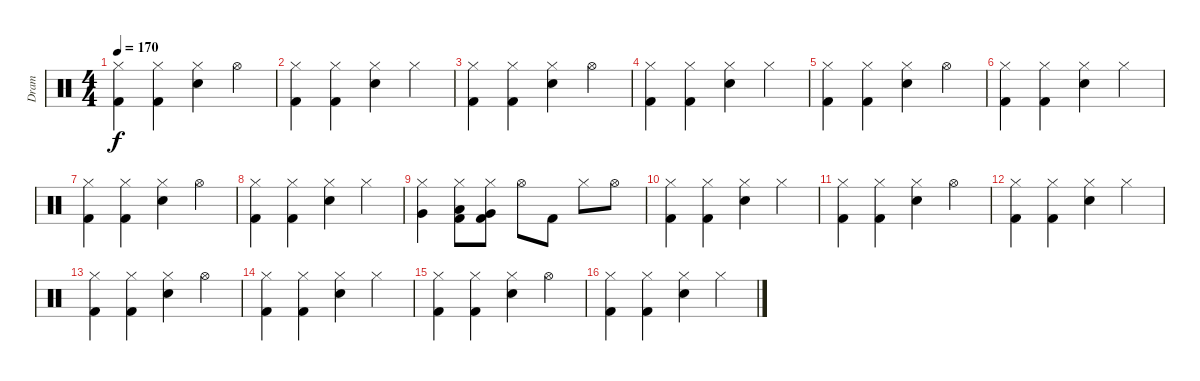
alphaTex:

\track ("Dram" "Dram") {instrument percussion}
\staff {score}
\articulation defaults
\ts (4 4)
\tempo 170
\clef neutral
\ks c
("Hi-Hat (closed)" "Kick (hit) 2").4{dy f} ("Hi-Hat (closed)" "Kick (hit) 2").4 ("Hi-Hat (closed)" "Electric Snare (hit)").4 "Hi-Hat (open)".4 |
("Hi-Hat (closed)" "Kick (hit) 2").4 ("Hi-Hat (closed)" "Kick (hit) 2").4 ("Hi-Hat (closed)" "Electric Snare (hit)").4 "Hi-Hat (closed)".4 |
("Hi-Hat (closed)" "Kick (hit) 2").4 ("Hi-Hat (closed)" "Kick (hit) 2").4 ("Hi-Hat (closed)" "Electric Snare (hit)").4 "Hi-Hat (open)".4 |
("Hi-Hat (closed)" "Kick (hit) 2").4 ("Hi-Hat (closed)" "Kick (hit) 2").4 ("Hi-Hat (closed)" "Electric Snare (hit)").4 "Hi-Hat (closed)".4 |
("Hi-Hat (closed)" "Kick (hit) 2").4 ("Hi-Hat (closed)" "Kick (hit) 2").4 ("Hi-Hat (closed)" "Electric Snare (hit)").4 "Hi-Hat (open)".4 |
("Hi-Hat (closed)" "Kick (hit) 2").4 ("Hi-Hat (closed)" "Kick (hit) 2").4 ("Hi-Hat (closed)" "Electric Snare (hit)").4 "Hi-Hat (closed)".4 |
("Hi-Hat (closed)" "Kick (hit) 2").4 ("Hi-Hat (closed)" "Kick (hit) 2").4 ("Hi-Hat (closed)" "Electric Snare (hit)").4 "Hi-Hat (open)".4 |
("Hi-Hat (closed)" "Kick (hit) 2").4 ("Hi-Hat (closed)" "Kick (hit) 2").4 ("Hi-Hat (closed)" "Electric Snare (hit)").4 "Hi-Hat (closed)".4 |
("Hi-Hat (closed)" "Very Low Tom (hit)").4 ("Hi-Hat (closed)" "Low Tom (hit)" "Kick (hit) 2").8 ("Hi-Hat (closed)" "Very Low Tom (hit)" "Kick (hit) 2").8 "Hi-Hat (open)".8 "Kick (hit) 2".8 "Hi-Hat (closed)".8 "Hi-Hat (open)".8 |
("Hi-Hat (closed)" "Kick (hit) 2").4 ("Hi-Hat (closed)" "Kick (hit) 2").4 ("Hi-Hat (closed)" "Electric Snare (hit)").4 "Hi-Hat (closed)".4 |
("Hi-Hat (closed)" "Kick (hit) 2").4 ("Hi-Hat (closed)" "Kick (hit) 2").4 ("Hi-Hat (closed)" "Electric Snare (hit)").4 "Hi-Hat (open)".4 |
("Hi-Hat (closed)" "Kick (hit) 2").4 ("Hi-Hat (closed)" "Kick (hit) 2").4 ("Hi-Hat (closed)" "Electric Snare (hit)").4 "Hi-Hat (closed)".4 |
("Hi-Hat (closed)" "Kick (hit) 2").4 ("Hi-Hat (closed)" "Kick (hit) 2").4 ("Hi-Hat (closed)" "Electric Snare (hit)").4 "Hi-Hat (open)".4 |
("Hi-Hat (closed)" "Kick (hit) 2").4 ("Hi-Hat (closed)" "Kick (hit) 2").4 ("Hi-Hat (closed)" "Electric Snare (hit)").4 "Hi-Hat (closed)".4 |
("Hi-Hat (closed)" "Kick (hit) 2").4 ("Hi-Hat (closed)" "Kick (hit) 2").4 ("Hi-Hat (closed)" "Electric Snare (hit)").4 "Hi-Hat (open)".4 |
("Hi-Hat (closed)" "Kick (hit) 2").4 ("Hi-Hat (closed)" "Kick (hit) 2").4 ("Hi-Hat (closed)" "Electric Snare (hit)").4 "Hi-Hat (closed)".4
